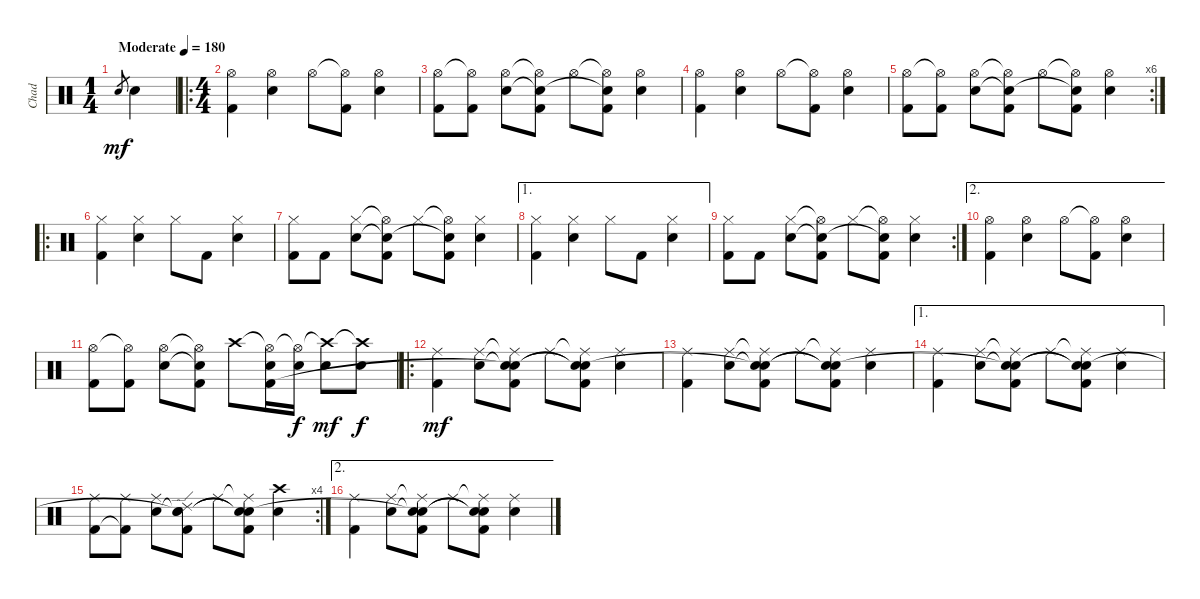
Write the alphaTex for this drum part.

\track ("Chad" "Chad") {instrument percussion}
\staff {score}
\articulation defaults
\ts (1 4)
\tempo (180 "Moderate")
\clef neutral
\ks c "Snare (hit) 2".8{gr dy mf} "Snare (hit) 2".4
|
\ro
\ts (4 4)
("Hi-Hat (open)" "Kick (hit) 2").4 ("Hi-Hat (open)" "Snare (hit) 2").4 "Hi-Hat (open)".8 ("Hi-Hat (open)"{t} "Kick (hit) 2").8 ("Hi-Hat (open)" "Snare (hit) 2").4 |
("Hi-Hat (open)" "Kick (hit) 2").8 ("Hi-Hat (open)"{t} "Kick (hit) 2").8 ("Hi-Hat (open)" "Snare (hit) 2").8 ("Hi-Hat (open)"{t} "Snare (hit) 2"{t} "Kick (hit) 2").8 "Hi-Hat (open)".8 ("Hi-Hat (open)"{t} "Snare (hit) 2"{t} "Kick (hit) 2").8 ("Hi-Hat (open)" "Snare (hit) 2").4 |
("Hi-Hat (open)" "Kick (hit) 2").4 ("Hi-Hat (open)" "Snare (hit) 2").4 "Hi-Hat (open)".8 ("Hi-Hat (open)"{t} "Kick (hit) 2").8 ("Hi-Hat (open)" "Snare (hit) 2").4 |
\rc 6
("Hi-Hat (open)" "Kick (hit) 2").8 ("Hi-Hat (open)"{t} "Kick (hit) 2").8 ("Hi-Hat (open)" "Snare (hit) 2").8 ("Hi-Hat (open)"{t} "Snare (hit) 2"{t} "Kick (hit) 2").8 "Hi-Hat (open)".8 ("Hi-Hat (open)"{t} "Snare (hit) 2"{t} "Kick (hit) 2").8 ("Hi-Hat (open)" "Snare (hit) 2").4 |
\ro
("Hi-Hat (closed)" "Kick (hit) 2").4 ("Hi-Hat (closed)" "Snare (hit) 2").4 "Hi-Hat (closed)".8 "Kick (hit) 2".8 ("Hi-Hat (closed)" "Snare (hit) 2").4 |
("Hi-Hat (closed)" "Kick (hit) 2").8 "Kick (hit) 2".8 ("Hi-Hat (closed)" "Snare (hit) 2").8 ("Hi-Hat (open)"{t} "Snare (hit) 2"{t} "Kick (hit) 2").8 "Hi-Hat (closed)".8 ("Hi-Hat (open)"{t} "Snare (hit) 2"{t} "Kick (hit) 2").8 ("Hi-Hat (closed)" "Snare (hit) 2").4 |
\ae 1
("Hi-Hat (closed)" "Kick (hit) 2").4 ("Hi-Hat (closed)" "Snare (hit) 2").4 "Hi-Hat (closed)".8 "Kick (hit) 2".8 ("Hi-Hat (closed)" "Snare (hit) 2").4 |
\rc 2
("Hi-Hat (closed)" "Kick (hit) 2").8 "Kick (hit) 2".8 ("Hi-Hat (closed)" "Snare (hit) 2").8 ("Hi-Hat (open)"{t} "Snare (hit) 2"{t} "Kick (hit) 2").8 "Hi-Hat (closed)".8 ("Hi-Hat (open)"{t} "Snare (hit) 2"{t} "Kick (hit) 2").8 ("Hi-Hat (closed)" "Snare (hit) 2").4 |
\ae 2
("Hi-Hat (open)" "Kick (hit) 2").4 ("Hi-Hat (open)" "Snare (hit) 2").4 "Hi-Hat (open)".8 ("Hi-Hat (open)"{t} "Kick (hit) 2").8 ("Hi-Hat (open)" "Snare (hit) 2").4 |
("Hi-Hat (open)" "Kick (hit) 2").8 ("Hi-Hat (open)"{t} "Kick (hit) 2").8 ("Hi-Hat (open)" "Snare (hit) 2").8 ("Hi-Hat (open)"{t} "Snare (hit) 2"{t} "Kick (hit) 2").8 "Crash high (hit)".8 ("Hi-Hat (open)"{t} "Snare (hit) 2" "Kick (hit) 2").16 ("Hi-Hat (open)"{t} "Snare (hit) 2").16{dy f} ("Crash high (hit)"{t} "Snare (hit) 2").8{dy mf} ("Crash high (hit)"{t} "Snare (hit) 2").8{dy f} |
\ro
("Ride (middle)" "Kick (hit) 2").4{dy mf} ("Ride (middle)" "Snare (hit) 2").8 ("Ride (middle)"{t} "Snare (hit)"{t} "Snare (hit) 2"{t} "Kick (hit) 2").8 "Ride (middle)".8 ("Ride (middle)"{t} "Snare (hit)"{t} "Snare (hit) 2"{t} "Kick (hit) 2").8 ("Ride (middle)" "Snare (hit) 2").4 |
("Ride (middle)" "Kick (hit) 2").4 ("Ride (middle)" "Snare (hit) 2").8 ("Ride (middle)"{t} "Snare (hit)"{t} "Snare (hit) 2"{t} "Kick (hit) 2").8 "Ride (middle)".8 ("Ride (middle)"{t} "Snare (hit)"{t} "Snare (hit) 2"{t} "Kick (hit) 2").8 ("Ride (middle)" "Snare (hit) 2").4 |
\ae 1
("Ride (middle)" "Kick (hit) 2").4 ("Ride (middle)" "Snare (hit) 2").8 ("Ride (middle)"{t} "Snare (hit)"{t} "Snare (hit) 2"{t} "Kick (hit) 2").8 "Ride (middle)".8 ("Ride (middle)"{t} "Snare (hit)"{t} "Snare (hit) 2"{t} "Kick (hit) 2").8 ("Ride (middle)" "Snare (hit) 2").4 |
\rc 4
("Ride (middle)" "Kick (hit) 2").8 ("Ride (middle)" "Kick (hit) 2"{t}).8 ("Ride (middle)" "Snare (hit) 2").8 ("Ride (edge) 2" "Snare (hit)"{t} "Snare (hit) 2"{t} "Kick (hit) 2").8 "Ride (middle)".8 ("Ride (middle)"{t} "Snare (hit)"{t} "Snare (hit) 2"{t} "Kick (hit) 2").8 ("Crash high (hit)" "Snare (hit) 2").4 |
\ae 2
("Ride (middle)" "Kick (hit) 2").4 ("Ride (middle)" "Snare (hit) 2").8 ("Ride (middle)"{t} "Snare (hit)"{t} "Snare (hit) 2"{t} "Kick (hit) 2").8 "Ride (middle)".8 ("Ride (middle)"{t} "Snare (hit)"{t} "Snare (hit) 2"{t} "Kick (hit) 2").8 ("Ride (middle)" "Snare (hit) 2").4
